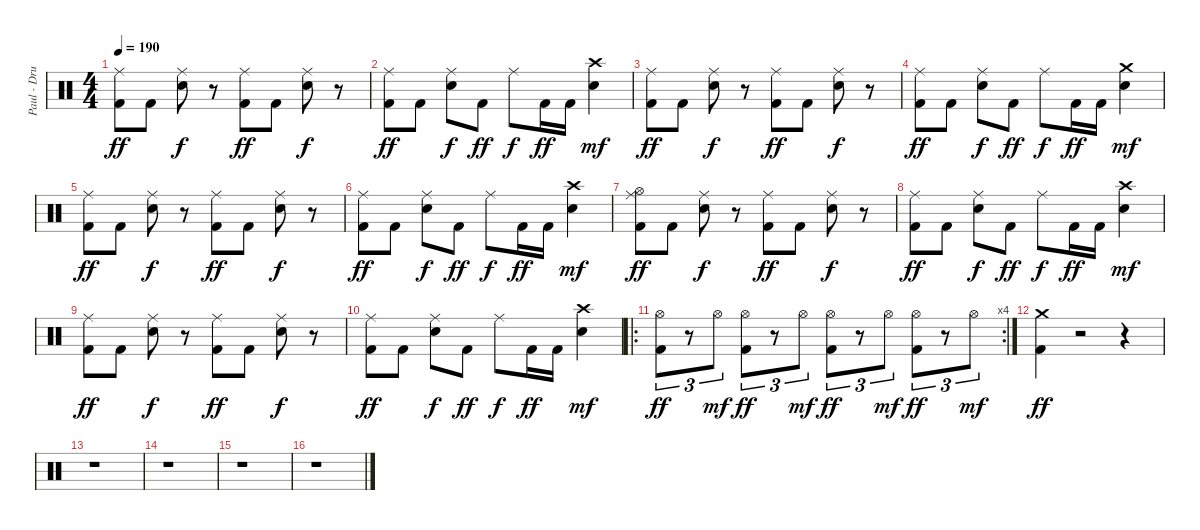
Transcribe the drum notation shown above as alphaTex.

\track ("Paul - Drums" "Paul - Dru") {instrument percussion}
\staff {score}
\articulation defaults
\ts (4 4)
\tempo 190
\clef neutral
\ks c
("Ride (middle)" "Kick (hit) 2").8{dy ff} "Kick (hit) 2".8 ("Ride (middle)" "Electric Snare (hit)").8{dy f} r.8 ("Ride (middle)" "Kick (hit) 2").8{dy ff} "Kick (hit) 2".8 ("Ride (middle)" "Electric Snare (hit)").8{dy f} r.8 |
("Ride (middle)" "Kick (hit) 2").8{dy ff} "Kick (hit) 2".8 ("Ride (middle)" "Electric Snare (hit)").8{dy f} "Kick (hit) 2".8{dy ff} "Ride (middle)".8{dy f} "Kick (hit) 2".16{dy ff} "Kick (hit) 2".16 ("Crash high (hit)" "Electric Snare (hit)").4{dy mf} |
("Ride (middle)" "Kick (hit) 2").8{dy ff} "Kick (hit) 2".8 ("Ride (middle)" "Electric Snare (hit)").8{dy f} r.8 ("Ride (middle)" "Kick (hit) 2").8{dy ff} "Kick (hit) 2".8 ("Ride (middle)" "Electric Snare (hit)").8{dy f} r.8 |
("Ride (middle)" "Kick (hit) 2").8{dy ff} "Kick (hit) 2".8 ("Ride (middle)" "Electric Snare (hit)").8{dy f} "Kick (hit) 2".8{dy ff} "Ride (middle)".8{dy f} "Kick (hit) 2".16{dy ff} "Kick (hit) 2".16 ("Crash medium (hit)" "Electric Snare (hit)").4{dy mf} |
("Ride (middle)" "Kick (hit) 2").8{dy ff} "Kick (hit) 2".8 ("Ride (middle)" "Electric Snare (hit)").8{dy f} r.8 ("Ride (middle)" "Kick (hit) 2").8{dy ff} "Kick (hit) 2".8 ("Ride (middle)" "Electric Snare (hit)").8{dy f} r.8 |
("Ride (middle)" "Kick (hit) 2").8{dy ff} "Kick (hit) 2".8 ("Ride (middle)" "Electric Snare (hit)").8{dy f} "Kick (hit) 2".8{dy ff} "Ride (middle)".8{dy f} "Kick (hit) 2".16{dy ff} "Kick (hit) 2".16 ("Crash high (hit)" "Electric Snare (hit)").4{dy mf} |
("Ride (middle)" "Hi-Hat (open)" "Kick (hit) 2").8{dy ff} "Kick (hit) 2".8 ("Ride (middle)" "Electric Snare (hit)").8{dy f} r.8 ("Ride (middle)" "Kick (hit) 2").8{dy ff} "Kick (hit) 2".8 ("Ride (middle)" "Electric Snare (hit)").8{dy f} r.8 |
("Ride (middle)" "Kick (hit) 2").8{dy ff} "Kick (hit) 2".8 ("Ride (middle)" "Electric Snare (hit)").8{dy f} "Kick (hit) 2".8{dy ff} "Ride (middle)".8{dy f} "Kick (hit) 2".16{dy ff} "Kick (hit) 2".16 ("Crash high (hit)" "Electric Snare (hit)").4{dy mf} |
("Ride (middle)" "Kick (hit) 2").8{dy ff} "Kick (hit) 2".8 ("Ride (middle)" "Electric Snare (hit)").8{dy f} r.8 ("Ride (middle)" "Kick (hit) 2").8{dy ff} "Kick (hit) 2".8 ("Ride (middle)" "Electric Snare (hit)").8{dy f} r.8 |
("Ride (middle)" "Kick (hit) 2").8{dy ff} "Kick (hit) 2".8 ("Ride (middle)" "Electric Snare (hit)").8{dy f} "Kick (hit) 2".8{dy ff} "Ride (middle)".8{dy f} "Kick (hit) 2".16{dy ff} "Kick (hit) 2".16 ("Crash high (hit)" "Electric Snare (hit)").4{dy mf} |
\ro
\rc 4
("Hi-Hat (open)" "Kick (hit) 2").8{tu (3 2) dy ff} r.8{tu (3 2)} "Hi-Hat (open)".8{tu (3 2) dy mf} ("Hi-Hat (open)" "Kick (hit) 2").8{tu (3 2) dy ff} r.8{tu (3 2)} "Hi-Hat (open)".8{tu (3 2) dy mf} ("Hi-Hat (open)" "Kick (hit) 2").8{tu (3 2) dy ff} r.8{tu (3 2)} "Hi-Hat (open)".8{tu (3 2) dy mf} ("Hi-Hat (open)" "Kick (hit) 2").8{tu (3 2) dy ff} r.8{tu (3 2)} "Hi-Hat (open)".8{tu (3 2) dy mf} |
("Crash medium (hit)" "Kick (hit) 2").4{dy ff} r.2 r.4 |
r.1 |
r.1 |
r.1 |
r.1
